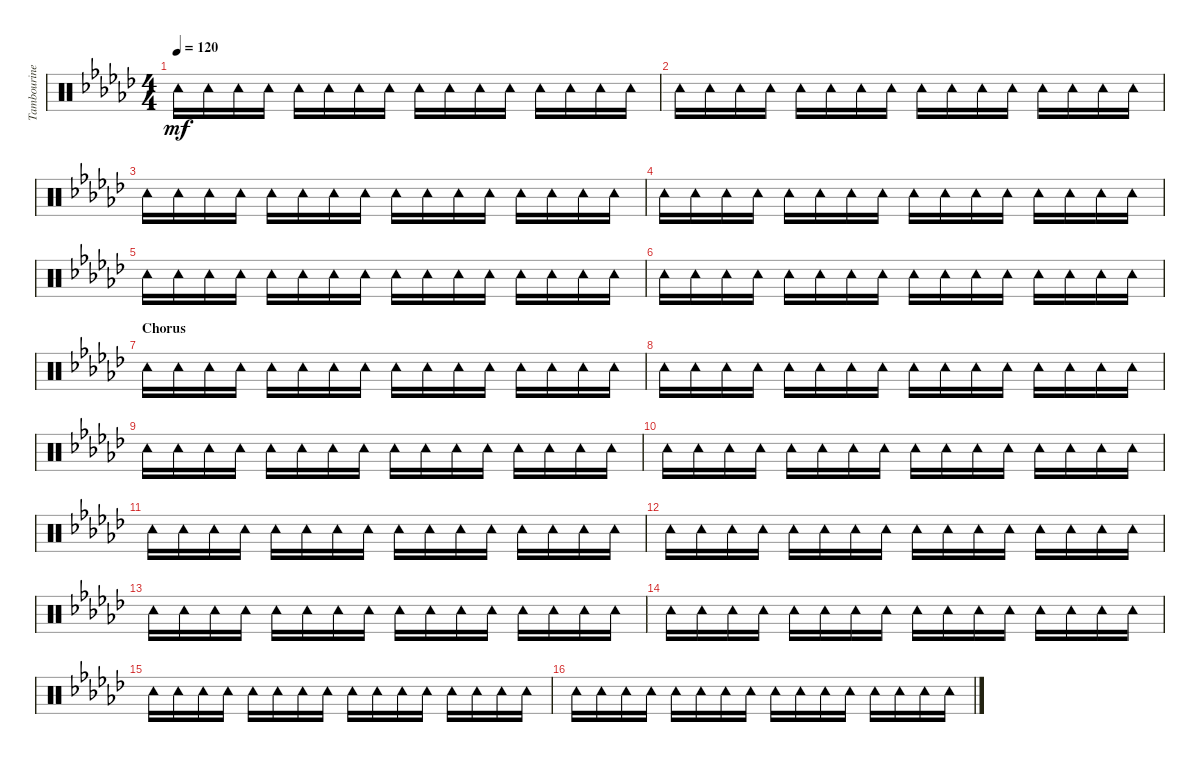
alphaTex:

\track ("Tambourine" "Tambourine") {instrument percussion}
\staff {score}
\articulation defaults
\ts (4 4)
\tempo 120
\clef neutral
\ks ebminor "Tambourine (hit)".16{dy mf} "Tambourine (hit)".16 "Tambourine (hit)".16 "Tambourine (hit)".16 "Tambourine (hit)".16 "Tambourine (hit)".16 "Tambourine (hit)".16 "Tambourine (hit)".16 "Tambourine (hit)".16 "Tambourine (hit)".16 "Tambourine (hit)".16 "Tambourine (hit)".16 "Tambourine (hit)".16 "Tambourine (hit)".16 "Tambourine (hit)".16 "Tambourine (hit)".16
|
"Tambourine (hit)".16 "Tambourine (hit)".16 "Tambourine (hit)".16 "Tambourine (hit)".16 "Tambourine (hit)".16 "Tambourine (hit)".16 "Tambourine (hit)".16 "Tambourine (hit)".16 "Tambourine (hit)".16 "Tambourine (hit)".16 "Tambourine (hit)".16 "Tambourine (hit)".16 "Tambourine (hit)".16 "Tambourine (hit)".16 "Tambourine (hit)".16 "Tambourine (hit)".16 |
"Tambourine (hit)".16 "Tambourine (hit)".16 "Tambourine (hit)".16 "Tambourine (hit)".16 "Tambourine (hit)".16 "Tambourine (hit)".16 "Tambourine (hit)".16 "Tambourine (hit)".16 "Tambourine (hit)".16 "Tambourine (hit)".16 "Tambourine (hit)".16 "Tambourine (hit)".16 "Tambourine (hit)".16 "Tambourine (hit)".16 "Tambourine (hit)".16 "Tambourine (hit)".16 |
"Tambourine (hit)".16 "Tambourine (hit)".16 "Tambourine (hit)".16 "Tambourine (hit)".16 "Tambourine (hit)".16 "Tambourine (hit)".16 "Tambourine (hit)".16 "Tambourine (hit)".16 "Tambourine (hit)".16 "Tambourine (hit)".16 "Tambourine (hit)".16 "Tambourine (hit)".16 "Tambourine (hit)".16 "Tambourine (hit)".16 "Tambourine (hit)".16 "Tambourine (hit)".16 |
"Tambourine (hit)".16 "Tambourine (hit)".16 "Tambourine (hit)".16 "Tambourine (hit)".16 "Tambourine (hit)".16 "Tambourine (hit)".16 "Tambourine (hit)".16 "Tambourine (hit)".16 "Tambourine (hit)".16 "Tambourine (hit)".16 "Tambourine (hit)".16 "Tambourine (hit)".16 "Tambourine (hit)".16 "Tambourine (hit)".16 "Tambourine (hit)".16 "Tambourine (hit)".16 |
"Tambourine (hit)".16 "Tambourine (hit)".16 "Tambourine (hit)".16 "Tambourine (hit)".16 "Tambourine (hit)".16 "Tambourine (hit)".16 "Tambourine (hit)".16 "Tambourine (hit)".16 "Tambourine (hit)".16 "Tambourine (hit)".16 "Tambourine (hit)".16 "Tambourine (hit)".16 "Tambourine (hit)".16 "Tambourine (hit)".16 "Tambourine (hit)".16 "Tambourine (hit)".16 |
\section ("" "Chorus")
"Tambourine (hit)".16 "Tambourine (hit)".16 "Tambourine (hit)".16 "Tambourine (hit)".16 "Tambourine (hit)".16 "Tambourine (hit)".16 "Tambourine (hit)".16 "Tambourine (hit)".16 "Tambourine (hit)".16 "Tambourine (hit)".16 "Tambourine (hit)".16 "Tambourine (hit)".16 "Tambourine (hit)".16 "Tambourine (hit)".16 "Tambourine (hit)".16 "Tambourine (hit)".16 |
"Tambourine (hit)".16 "Tambourine (hit)".16 "Tambourine (hit)".16 "Tambourine (hit)".16 "Tambourine (hit)".16 "Tambourine (hit)".16 "Tambourine (hit)".16 "Tambourine (hit)".16 "Tambourine (hit)".16 "Tambourine (hit)".16 "Tambourine (hit)".16 "Tambourine (hit)".16 "Tambourine (hit)".16 "Tambourine (hit)".16 "Tambourine (hit)".16 "Tambourine (hit)".16 |
"Tambourine (hit)".16 "Tambourine (hit)".16 "Tambourine (hit)".16 "Tambourine (hit)".16 "Tambourine (hit)".16 "Tambourine (hit)".16 "Tambourine (hit)".16 "Tambourine (hit)".16 "Tambourine (hit)".16 "Tambourine (hit)".16 "Tambourine (hit)".16 "Tambourine (hit)".16 "Tambourine (hit)".16 "Tambourine (hit)".16 "Tambourine (hit)".16 "Tambourine (hit)".16 |
"Tambourine (hit)".16 "Tambourine (hit)".16 "Tambourine (hit)".16 "Tambourine (hit)".16 "Tambourine (hit)".16 "Tambourine (hit)".16 "Tambourine (hit)".16 "Tambourine (hit)".16 "Tambourine (hit)".16 "Tambourine (hit)".16 "Tambourine (hit)".16 "Tambourine (hit)".16 "Tambourine (hit)".16 "Tambourine (hit)".16 "Tambourine (hit)".16 "Tambourine (hit)".16 |
"Tambourine (hit)".16 "Tambourine (hit)".16 "Tambourine (hit)".16 "Tambourine (hit)".16 "Tambourine (hit)".16 "Tambourine (hit)".16 "Tambourine (hit)".16 "Tambourine (hit)".16 "Tambourine (hit)".16 "Tambourine (hit)".16 "Tambourine (hit)".16 "Tambourine (hit)".16 "Tambourine (hit)".16 "Tambourine (hit)".16 "Tambourine (hit)".16 "Tambourine (hit)".16 |
"Tambourine (hit)".16 "Tambourine (hit)".16 "Tambourine (hit)".16 "Tambourine (hit)".16 "Tambourine (hit)".16 "Tambourine (hit)".16 "Tambourine (hit)".16 "Tambourine (hit)".16 "Tambourine (hit)".16 "Tambourine (hit)".16 "Tambourine (hit)".16 "Tambourine (hit)".16 "Tambourine (hit)".16 "Tambourine (hit)".16 "Tambourine (hit)".16 "Tambourine (hit)".16 |
"Tambourine (hit)".16 "Tambourine (hit)".16 "Tambourine (hit)".16 "Tambourine (hit)".16 "Tambourine (hit)".16 "Tambourine (hit)".16 "Tambourine (hit)".16 "Tambourine (hit)".16 "Tambourine (hit)".16 "Tambourine (hit)".16 "Tambourine (hit)".16 "Tambourine (hit)".16 "Tambourine (hit)".16 "Tambourine (hit)".16 "Tambourine (hit)".16 "Tambourine (hit)".16 |
"Tambourine (hit)".16 "Tambourine (hit)".16 "Tambourine (hit)".16 "Tambourine (hit)".16 "Tambourine (hit)".16 "Tambourine (hit)".16 "Tambourine (hit)".16 "Tambourine (hit)".16 "Tambourine (hit)".16 "Tambourine (hit)".16 "Tambourine (hit)".16 "Tambourine (hit)".16 "Tambourine (hit)".16 "Tambourine (hit)".16 "Tambourine (hit)".16 "Tambourine (hit)".16 |
"Tambourine (hit)".16 "Tambourine (hit)".16 "Tambourine (hit)".16 "Tambourine (hit)".16 "Tambourine (hit)".16 "Tambourine (hit)".16 "Tambourine (hit)".16 "Tambourine (hit)".16 "Tambourine (hit)".16 "Tambourine (hit)".16 "Tambourine (hit)".16 "Tambourine (hit)".16 "Tambourine (hit)".16 "Tambourine (hit)".16 "Tambourine (hit)".16 "Tambourine (hit)".16 |
"Tambourine (hit)".16 "Tambourine (hit)".16 "Tambourine (hit)".16 "Tambourine (hit)".16 "Tambourine (hit)".16 "Tambourine (hit)".16 "Tambourine (hit)".16 "Tambourine (hit)".16 "Tambourine (hit)".16 "Tambourine (hit)".16 "Tambourine (hit)".16 "Tambourine (hit)".16 "Tambourine (hit)".16 "Tambourine (hit)".16 "Tambourine (hit)".16 "Tambourine (hit)".16
